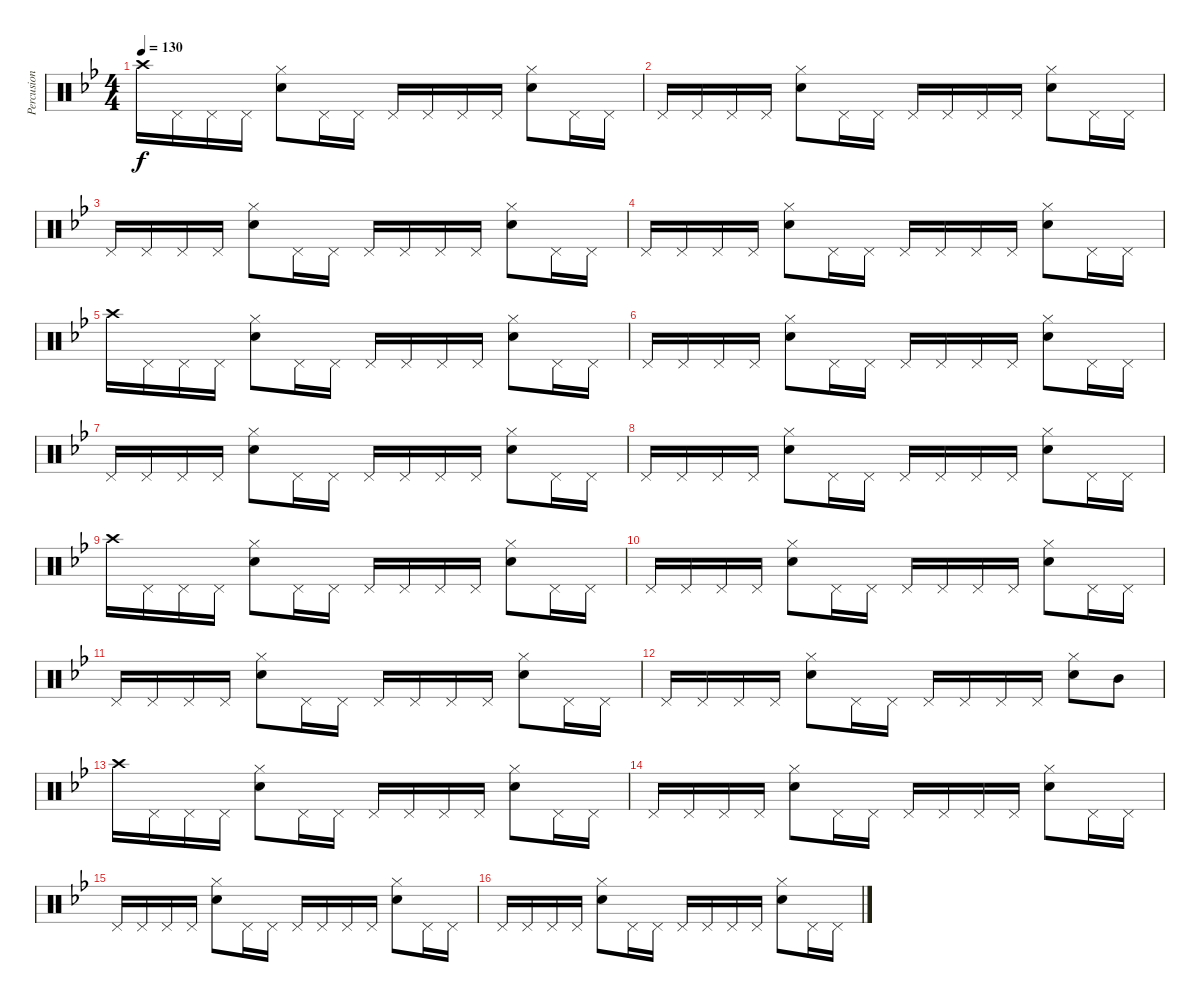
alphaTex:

\track ("Percusion I" "Percusion ") {instrument percussion}
\staff {score}
\articulation defaults
\ts (4 4)
\tempo 130
\clef neutral
\ks gminor "Crash high (hit)".16{dy f} "Pedal Hi-Hat (hit)".16 "Pedal Hi-Hat (hit)".16 "Pedal Hi-Hat (hit)".16
("Snare (hit) 2" "Hi-Hat (closed)").8 "Pedal Hi-Hat (hit)".16 "Pedal Hi-Hat (hit)".16 "Pedal Hi-Hat (hit)".16 "Pedal Hi-Hat (hit)".16 "Pedal Hi-Hat (hit)".16 "Pedal Hi-Hat (hit)".16 ("Snare (hit) 2" "Hi-Hat (closed)").8 "Pedal Hi-Hat (hit)".16 "Pedal Hi-Hat (hit)".16 |
"Pedal Hi-Hat (hit)".16 "Pedal Hi-Hat (hit)".16 "Pedal Hi-Hat (hit)".16 "Pedal Hi-Hat (hit)".16 ("Hi-Hat (closed)" "Snare (hit) 2").8 "Pedal Hi-Hat (hit)".16 "Pedal Hi-Hat (hit)".16 "Pedal Hi-Hat (hit)".16 "Pedal Hi-Hat (hit)".16 "Pedal Hi-Hat (hit)".16 "Pedal Hi-Hat (hit)".16 ("Snare (hit) 2" "Hi-Hat (closed)").8 "Pedal Hi-Hat (hit)".16 "Pedal Hi-Hat (hit)".16 |
"Pedal Hi-Hat (hit)".16 "Pedal Hi-Hat (hit)".16 "Pedal Hi-Hat (hit)".16 "Pedal Hi-Hat (hit)".16 ("Hi-Hat (closed)" "Snare (hit) 2").8 "Pedal Hi-Hat (hit)".16 "Pedal Hi-Hat (hit)".16 "Pedal Hi-Hat (hit)".16 "Pedal Hi-Hat (hit)".16 "Pedal Hi-Hat (hit)".16 "Pedal Hi-Hat (hit)".16 ("Snare (hit) 2" "Hi-Hat (closed)").8 "Pedal Hi-Hat (hit)".16 "Pedal Hi-Hat (hit)".16 |
"Pedal Hi-Hat (hit)".16 "Pedal Hi-Hat (hit)".16 "Pedal Hi-Hat (hit)".16 "Pedal Hi-Hat (hit)".16 ("Hi-Hat (closed)" "Snare (hit) 2").8 "Pedal Hi-Hat (hit)".16 "Pedal Hi-Hat (hit)".16 "Pedal Hi-Hat (hit)".16 "Pedal Hi-Hat (hit)".16 "Pedal Hi-Hat (hit)".16 "Pedal Hi-Hat (hit)".16 ("Snare (hit) 2" "Hi-Hat (closed)").8 "Pedal Hi-Hat (hit)".16 "Pedal Hi-Hat (hit)".16 |
"Crash high (hit)".16 "Pedal Hi-Hat (hit)".16 "Pedal Hi-Hat (hit)".16 "Pedal Hi-Hat (hit)".16 ("Snare (hit) 2" "Hi-Hat (closed)").8 "Pedal Hi-Hat (hit)".16 "Pedal Hi-Hat (hit)".16 "Pedal Hi-Hat (hit)".16 "Pedal Hi-Hat (hit)".16 "Pedal Hi-Hat (hit)".16 "Pedal Hi-Hat (hit)".16 ("Snare (hit) 2" "Hi-Hat (closed)").8 "Pedal Hi-Hat (hit)".16 "Pedal Hi-Hat (hit)".16 |
"Pedal Hi-Hat (hit)".16 "Pedal Hi-Hat (hit)".16 "Pedal Hi-Hat (hit)".16 "Pedal Hi-Hat (hit)".16 ("Hi-Hat (closed)" "Snare (hit) 2").8 "Pedal Hi-Hat (hit)".16 "Pedal Hi-Hat (hit)".16 "Pedal Hi-Hat (hit)".16 "Pedal Hi-Hat (hit)".16 "Pedal Hi-Hat (hit)".16 "Pedal Hi-Hat (hit)".16 ("Snare (hit) 2" "Hi-Hat (closed)").8 "Pedal Hi-Hat (hit)".16 "Pedal Hi-Hat (hit)".16 |
"Pedal Hi-Hat (hit)".16 "Pedal Hi-Hat (hit)".16 "Pedal Hi-Hat (hit)".16 "Pedal Hi-Hat (hit)".16 ("Hi-Hat (closed)" "Snare (hit) 2").8 "Pedal Hi-Hat (hit)".16 "Pedal Hi-Hat (hit)".16 "Pedal Hi-Hat (hit)".16 "Pedal Hi-Hat (hit)".16 "Pedal Hi-Hat (hit)".16 "Pedal Hi-Hat (hit)".16 ("Snare (hit) 2" "Hi-Hat (closed)").8 "Pedal Hi-Hat (hit)".16 "Pedal Hi-Hat (hit)".16 |
"Pedal Hi-Hat (hit)".16 "Pedal Hi-Hat (hit)".16 "Pedal Hi-Hat (hit)".16 "Pedal Hi-Hat (hit)".16 ("Hi-Hat (closed)" "Snare (hit) 2").8 "Pedal Hi-Hat (hit)".16 "Pedal Hi-Hat (hit)".16 "Pedal Hi-Hat (hit)".16 "Pedal Hi-Hat (hit)".16 "Pedal Hi-Hat (hit)".16 "Pedal Hi-Hat (hit)".16 ("Snare (hit) 2" "Hi-Hat (closed)").8 "Pedal Hi-Hat (hit)".16 "Pedal Hi-Hat (hit)".16 |
"Crash high (hit)".16 "Pedal Hi-Hat (hit)".16 "Pedal Hi-Hat (hit)".16 "Pedal Hi-Hat (hit)".16 ("Snare (hit) 2" "Hi-Hat (closed)").8 "Pedal Hi-Hat (hit)".16 "Pedal Hi-Hat (hit)".16 "Pedal Hi-Hat (hit)".16 "Pedal Hi-Hat (hit)".16 "Pedal Hi-Hat (hit)".16 "Pedal Hi-Hat (hit)".16 ("Snare (hit) 2" "Hi-Hat (closed)").8 "Pedal Hi-Hat (hit)".16 "Pedal Hi-Hat (hit)".16 |
"Pedal Hi-Hat (hit)".16 "Pedal Hi-Hat (hit)".16 "Pedal Hi-Hat (hit)".16 "Pedal Hi-Hat (hit)".16 ("Hi-Hat (closed)" "Snare (hit) 2").8 "Pedal Hi-Hat (hit)".16 "Pedal Hi-Hat (hit)".16 "Pedal Hi-Hat (hit)".16 "Pedal Hi-Hat (hit)".16 "Pedal Hi-Hat (hit)".16 "Pedal Hi-Hat (hit)".16 ("Snare (hit) 2" "Hi-Hat (closed)").8 "Pedal Hi-Hat (hit)".16 "Pedal Hi-Hat (hit)".16 |
"Pedal Hi-Hat (hit)".16 "Pedal Hi-Hat (hit)".16 "Pedal Hi-Hat (hit)".16 "Pedal Hi-Hat (hit)".16 ("Hi-Hat (closed)" "Snare (hit) 2").8 "Pedal Hi-Hat (hit)".16 "Pedal Hi-Hat (hit)".16 "Pedal Hi-Hat (hit)".16 "Pedal Hi-Hat (hit)".16 "Pedal Hi-Hat (hit)".16 "Pedal Hi-Hat (hit)".16 ("Snare (hit) 2" "Hi-Hat (closed)").8 "Pedal Hi-Hat (hit)".16 "Pedal Hi-Hat (hit)".16 |
"Pedal Hi-Hat (hit)".16 "Pedal Hi-Hat (hit)".16 "Pedal Hi-Hat (hit)".16 "Pedal Hi-Hat (hit)".16 ("Hi-Hat (closed)" "Snare (hit) 2").8 "Pedal Hi-Hat (hit)".16 "Pedal Hi-Hat (hit)".16 "Pedal Hi-Hat (hit)".16 "Pedal Hi-Hat (hit)".16 "Pedal Hi-Hat (hit)".16 "Pedal Hi-Hat (hit)".16 ("Snare (hit) 2" "Hi-Hat (closed)").8 "Mid Tom (hit)".8 |
"Crash high (hit)".16 "Pedal Hi-Hat (hit)".16 "Pedal Hi-Hat (hit)".16 "Pedal Hi-Hat (hit)".16 ("Snare (hit) 2" "Hi-Hat (closed)").8 "Pedal Hi-Hat (hit)".16 "Pedal Hi-Hat (hit)".16 "Pedal Hi-Hat (hit)".16 "Pedal Hi-Hat (hit)".16 "Pedal Hi-Hat (hit)".16 "Pedal Hi-Hat (hit)".16 ("Snare (hit) 2" "Hi-Hat (closed)").8 "Pedal Hi-Hat (hit)".16 "Pedal Hi-Hat (hit)".16 |
"Pedal Hi-Hat (hit)".16 "Pedal Hi-Hat (hit)".16 "Pedal Hi-Hat (hit)".16 "Pedal Hi-Hat (hit)".16 ("Hi-Hat (closed)" "Snare (hit) 2").8 "Pedal Hi-Hat (hit)".16 "Pedal Hi-Hat (hit)".16 "Pedal Hi-Hat (hit)".16 "Pedal Hi-Hat (hit)".16 "Pedal Hi-Hat (hit)".16 "Pedal Hi-Hat (hit)".16 ("Snare (hit) 2" "Hi-Hat (closed)").8 "Pedal Hi-Hat (hit)".16 "Pedal Hi-Hat (hit)".16 |
"Pedal Hi-Hat (hit)".16 "Pedal Hi-Hat (hit)".16 "Pedal Hi-Hat (hit)".16 "Pedal Hi-Hat (hit)".16 ("Hi-Hat (closed)" "Snare (hit) 2").8 "Pedal Hi-Hat (hit)".16 "Pedal Hi-Hat (hit)".16 "Pedal Hi-Hat (hit)".16 "Pedal Hi-Hat (hit)".16 "Pedal Hi-Hat (hit)".16 "Pedal Hi-Hat (hit)".16 ("Snare (hit) 2" "Hi-Hat (closed)").8 "Pedal Hi-Hat (hit)".16 "Pedal Hi-Hat (hit)".16 |
"Pedal Hi-Hat (hit)".16 "Pedal Hi-Hat (hit)".16 "Pedal Hi-Hat (hit)".16 "Pedal Hi-Hat (hit)".16 ("Hi-Hat (closed)" "Snare (hit) 2").8 "Pedal Hi-Hat (hit)".16 "Pedal Hi-Hat (hit)".16 "Pedal Hi-Hat (hit)".16 "Pedal Hi-Hat (hit)".16 "Pedal Hi-Hat (hit)".16 "Pedal Hi-Hat (hit)".16 ("Snare (hit) 2" "Hi-Hat (closed)").8 "Pedal Hi-Hat (hit)".16 "Pedal Hi-Hat (hit)".16
